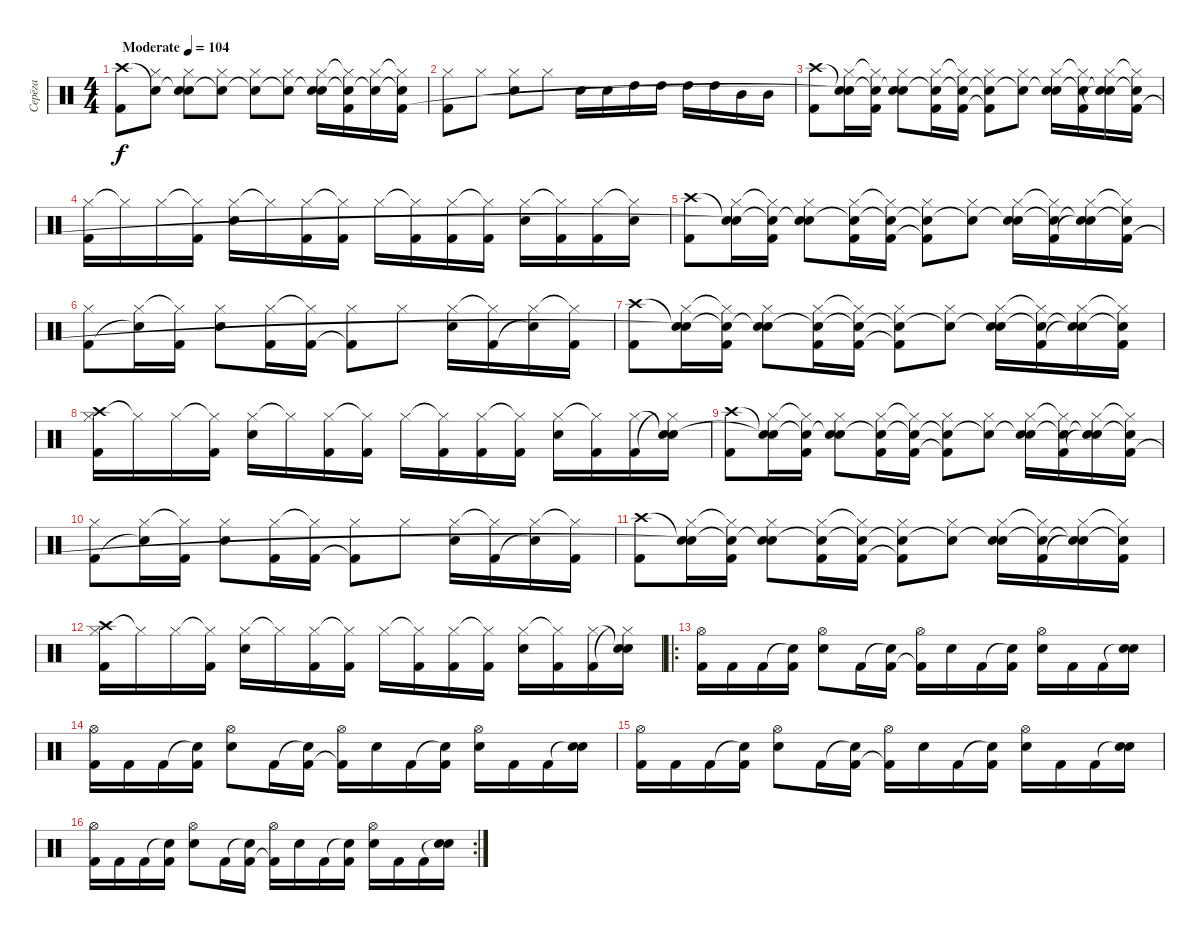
\track ("Серёга" "Серёга") {instrument percussion}
\staff {score}
\articulation defaults
\ts (4 4)
\tempo (104 "Moderate")
\clef neutral
\ks c
("Crash high (hit)" "Kick (hit) 2").8{dy f} ("Snare (hit)"{t} "Hi-Hat (closed)").8 ("Snare (hit)"{t} "Hi-Hat (closed)" "Electric Snare (hit)").8 ("Snare (hit)"{t} "Hi-Hat (closed)").8 ("Snare (hit)"{t} "Hi-Hat (closed)").8 ("Snare (hit)"{t} "Hi-Hat (closed)").8 ("Snare (hit)"{t} "Hi-Hat (closed)" "Electric Snare (hit)").16 ("Snare (hit)"{t} "Hi-Hat (closed)"{t} "Kick (hit) 2").16 ("Snare (hit)"{t} "Hi-Hat (closed)").16 ("Snare (hit)"{t} "Hi-Hat (closed)"{t} "Kick (hit) 2").16 |
("Hi-Hat (closed)" "Kick (hit) 2").8 "Hi-Hat (closed)".8 ("Hi-Hat (closed)" "Electric Snare (hit)").8 "Hi-Hat (closed)".8 "Electric Snare (hit)".16 "Electric Snare (hit)".16 "High Tom (hit)".16 "High Tom (hit)".16 "High Tom (hit)".16 "High Tom (hit)".16 "Mid Tom (hit)".16 "Mid Tom (hit)".16 |
("Crash high (hit)" "Kick (hit) 2").8 ("Snare (hit)"{t} "Hi-Hat (closed)" "Snare (hit)"{t}).16 ("Snare (hit)"{t} "Hi-Hat (closed)"{t} "Kick (hit) 2").16 ("Snare (hit)"{t} "Hi-Hat (closed)" "Electric Snare (hit)").8 ("Snare (hit)"{t} "Hi-Hat (closed)" "Kick (hit) 2").16 ("Snare (hit)"{t} "Hi-Hat (closed)"{t} "Kick (hit) 2").16 ("Snare (hit)"{t} "Hi-Hat (closed)" "Kick (hit) 2"{t}).8 ("Snare (hit)"{t} "Hi-Hat (closed)").8 ("Snare (hit)"{t} "Hi-Hat (closed)" "Electric Snare (hit)").16 ("Snare (hit)"{t} "Hi-Hat (closed)"{t} "Kick (hit) 2").16 ("Snare (hit)"{t} "Hi-Hat (closed)" "Snare (hit)"{t}).16 ("Snare (hit)"{t} "Hi-Hat (closed)"{t} "Kick (hit) 2").16 |
("Hi-Hat (closed)" "Kick (hit) 2").16 "Hi-Hat (closed)"{t}.16 "Hi-Hat (closed)".16 ("Hi-Hat (closed)"{t} "Kick (hit) 2").16 ("Hi-Hat (closed)" "Electric Snare (hit)").16 "Hi-Hat (closed)"{t}.16 ("Hi-Hat (closed)" "Kick (hit) 2").16 ("Hi-Hat (closed)"{t} "Kick (hit) 2").16 "Hi-Hat (closed)".16 ("Hi-Hat (closed)"{t} "Kick (hit) 2").16 ("Hi-Hat (closed)" "Kick (hit) 2").16 ("Hi-Hat (closed)"{t} "Kick (hit) 2").16 ("Hi-Hat (closed)" "Electric Snare (hit)").16 ("Hi-Hat (closed)"{t} "Kick (hit) 2").16 ("Hi-Hat (closed)" "Kick (hit) 2").16 ("Hi-Hat (closed)"{t} "Electric Snare (hit)").16 |
("Crash high (hit)" "Kick (hit) 2").8 ("Snare (hit)"{t} "Hi-Hat (closed)" "Snare (hit)"{t}).16 ("Snare (hit)"{t} "Hi-Hat (closed)"{t} "Kick (hit) 2").16 ("Snare (hit)"{t} "Hi-Hat (closed)" "Electric Snare (hit)").8 ("Snare (hit)"{t} "Hi-Hat (closed)" "Kick (hit) 2").16 ("Snare (hit)"{t} "Hi-Hat (closed)"{t} "Kick (hit) 2").16 ("Snare (hit)"{t} "Hi-Hat (closed)" "Kick (hit) 2"{t}).8 ("Snare (hit)"{t} "Hi-Hat (closed)").8 ("Snare (hit)"{t} "Hi-Hat (closed)" "Electric Snare (hit)").16 ("Snare (hit)"{t} "Hi-Hat (closed)"{t} "Kick (hit) 2").16 ("Snare (hit)"{t} "Hi-Hat (closed)" "Snare (hit)"{t}).16 ("Snare (hit)"{t} "Hi-Hat (closed)"{t} "Kick (hit) 2").16 |
("Hi-Hat (closed)" "Kick (hit) 2").8 ("Hi-Hat (closed)" "Snare (hit)"{t}).16 ("Hi-Hat (closed)"{t} "Kick (hit) 2").16 ("Hi-Hat (closed)" "Electric Snare (hit)").8 ("Hi-Hat (closed)" "Kick (hit) 2").16 ("Hi-Hat (closed)"{t} "Kick (hit) 2").16 ("Hi-Hat (closed)" "Kick (hit) 2"{t}).8 "Hi-Hat (closed)".8 ("Hi-Hat (closed)" "Electric Snare (hit)").16 ("Hi-Hat (closed)"{t} "Kick (hit) 2").16 ("Hi-Hat (closed)" "Snare (hit)"{t}).16 ("Hi-Hat (closed)"{t} "Kick (hit) 2").16 |
("Crash high (hit)" "Kick (hit) 2").8 ("Snare (hit)"{t} "Hi-Hat (closed)" "Snare (hit)"{t}).16 ("Snare (hit)"{t} "Hi-Hat (closed)"{t} "Kick (hit) 2").16 ("Snare (hit)"{t} "Hi-Hat (closed)" "Electric Snare (hit)").8 ("Snare (hit)"{t} "Hi-Hat (closed)" "Kick (hit) 2").16 ("Snare (hit)"{t} "Hi-Hat (closed)"{t} "Kick (hit) 2").16 ("Snare (hit)"{t} "Hi-Hat (closed)" "Kick (hit) 2"{t}).8 ("Snare (hit)"{t} "Hi-Hat (closed)").8 ("Snare (hit)"{t} "Hi-Hat (closed)" "Electric Snare (hit)").16 ("Snare (hit)"{t} "Hi-Hat (closed)"{t} "Kick (hit) 2").16 ("Snare (hit)"{t} "Hi-Hat (closed)" "Snare (hit)"{t}).16 ("Snare (hit)"{t} "Hi-Hat (closed)"{t} "Kick (hit) 2").16 |
("Crash high (hit)" "Hi-Hat (closed)" "Kick (hit) 2").16 "Hi-Hat (closed)"{t}.16 "Hi-Hat (closed)".16 ("Hi-Hat (closed)"{t} "Kick (hit) 2").16 ("Hi-Hat (closed)" "Electric Snare (hit)").16 "Hi-Hat (closed)"{t}.16 ("Hi-Hat (closed)" "Kick (hit) 2").16 ("Hi-Hat (closed)"{t} "Kick (hit) 2").16 "Hi-Hat (closed)".16 ("Hi-Hat (closed)"{t} "Kick (hit) 2").16 ("Hi-Hat (closed)" "Kick (hit) 2").16 ("Hi-Hat (closed)"{t} "Kick (hit) 2").16 ("Hi-Hat (closed)" "Electric Snare (hit)").16 ("Hi-Hat (closed)"{t} "Kick (hit) 2").16 ("Hi-Hat (closed)" "Kick (hit) 2").16 ("Snare (hit)"{t} "Hi-Hat (closed)"{t} "Electric Snare (hit)").16 |
("Crash high (hit)" "Kick (hit) 2").8 ("Snare (hit)"{t} "Hi-Hat (closed)" "Snare (hit)"{t}).16 ("Snare (hit)"{t} "Hi-Hat (closed)"{t} "Kick (hit) 2").16 ("Snare (hit)"{t} "Hi-Hat (closed)" "Electric Snare (hit)").8 ("Snare (hit)"{t} "Hi-Hat (closed)" "Kick (hit) 2").16 ("Snare (hit)"{t} "Hi-Hat (closed)"{t} "Kick (hit) 2").16 ("Snare (hit)"{t} "Hi-Hat (closed)" "Kick (hit) 2"{t}).8 ("Snare (hit)"{t} "Hi-Hat (closed)").8 ("Snare (hit)"{t} "Hi-Hat (closed)" "Electric Snare (hit)").16 ("Snare (hit)"{t} "Hi-Hat (closed)"{t} "Kick (hit) 2").16 ("Snare (hit)"{t} "Hi-Hat (closed)" "Snare (hit)"{t}).16 ("Snare (hit)"{t} "Hi-Hat (closed)"{t} "Kick (hit) 2").16 |
("Hi-Hat (closed)" "Kick (hit) 2").8 ("Hi-Hat (closed)" "Snare (hit)"{t}).16 ("Hi-Hat (closed)"{t} "Kick (hit) 2").16 ("Hi-Hat (closed)" "Electric Snare (hit)").8 ("Hi-Hat (closed)" "Kick (hit) 2").16 ("Hi-Hat (closed)"{t} "Kick (hit) 2").16 ("Hi-Hat (closed)" "Kick (hit) 2"{t}).8 "Hi-Hat (closed)".8 ("Hi-Hat (closed)" "Electric Snare (hit)").16 ("Hi-Hat (closed)"{t} "Kick (hit) 2").16 ("Hi-Hat (closed)" "Snare (hit)"{t}).16 ("Hi-Hat (closed)"{t} "Kick (hit) 2").16 |
("Crash high (hit)" "Kick (hit) 2").8 ("Snare (hit)"{t} "Hi-Hat (closed)" "Snare (hit)"{t}).16 ("Snare (hit)"{t} "Hi-Hat (closed)"{t} "Kick (hit) 2").16 ("Snare (hit)"{t} "Hi-Hat (closed)" "Electric Snare (hit)").8 ("Snare (hit)"{t} "Hi-Hat (closed)" "Kick (hit) 2").16 ("Snare (hit)"{t} "Hi-Hat (closed)"{t} "Kick (hit) 2").16 ("Snare (hit)"{t} "Hi-Hat (closed)" "Kick (hit) 2"{t}).8 ("Snare (hit)"{t} "Hi-Hat (closed)").8 ("Snare (hit)"{t} "Hi-Hat (closed)" "Electric Snare (hit)").16 ("Snare (hit)"{t} "Hi-Hat (closed)"{t} "Kick (hit) 2").16 ("Snare (hit)"{t} "Hi-Hat (closed)" "Snare (hit)"{t}).16 ("Snare (hit)"{t} "Hi-Hat (closed)"{t} "Kick (hit) 2").16 |
("Crash high (hit)" "Hi-Hat (closed)" "Kick (hit) 2").16 "Hi-Hat (closed)"{t}.16 "Hi-Hat (closed)".16 ("Hi-Hat (closed)"{t} "Kick (hit) 2").16 ("Hi-Hat (closed)" "Electric Snare (hit)").16 "Hi-Hat (closed)"{t}.16 ("Hi-Hat (closed)" "Kick (hit) 2").16 ("Hi-Hat (closed)"{t} "Kick (hit) 2").16 "Hi-Hat (closed)".16 ("Hi-Hat (closed)"{t} "Kick (hit) 2").16 ("Hi-Hat (closed)" "Kick (hit) 2").16 ("Hi-Hat (closed)"{t} "Kick (hit) 2").16 ("Hi-Hat (closed)" "Electric Snare (hit)").16 ("Hi-Hat (closed)"{t} "Kick (hit) 2").16 ("Hi-Hat (closed)" "Kick (hit) 2").16 ("Snare (hit)"{t} "Hi-Hat (closed)"{t} "Electric Snare (hit)").16 |
\ro
("Hi-Hat (open)" "Kick (hit) 2").16 "Kick (hit) 2".16 "Kick (hit) 2".16 ("Snare (hit)"{t} "Kick (hit) 2").16 ("Hi-Hat (open)" "Electric Snare (hit)").8 "Kick (hit) 2".16 ("Snare (hit)"{t} "Kick (hit) 2").16 ("Hi-Hat (open)" "Kick (hit) 2"{t}).16 "Electric Snare (hit)".16 "Kick (hit) 2".16 ("Snare (hit)"{t} "Kick (hit) 2").16 ("Hi-Hat (open)" "Electric Snare (hit)").16 "Kick (hit) 2".16 "Kick (hit) 2".16 ("Snare (hit)"{t} "Electric Snare (hit)").16 |
("Hi-Hat (open)" "Kick (hit) 2").16 "Kick (hit) 2".16 "Kick (hit) 2".16 ("Snare (hit)"{t} "Kick (hit) 2").16 ("Hi-Hat (open)" "Electric Snare (hit)").8 "Kick (hit) 2".16 ("Snare (hit)"{t} "Kick (hit) 2").16 ("Hi-Hat (open)" "Kick (hit) 2"{t}).16 "Electric Snare (hit)".16 "Kick (hit) 2".16 ("Snare (hit)"{t} "Kick (hit) 2").16 ("Hi-Hat (open)" "Electric Snare (hit)").16 "Kick (hit) 2".16 "Kick (hit) 2".16 ("Snare (hit)"{t} "Electric Snare (hit)").16 |
("Hi-Hat (open)" "Kick (hit) 2").16 "Kick (hit) 2".16 "Kick (hit) 2".16 ("Snare (hit)"{t} "Kick (hit) 2").16 ("Hi-Hat (open)" "Electric Snare (hit)").8 "Kick (hit) 2".16 ("Snare (hit)"{t} "Kick (hit) 2").16 ("Hi-Hat (open)" "Kick (hit) 2"{t}).16 "Electric Snare (hit)".16 "Kick (hit) 2".16 ("Snare (hit)"{t} "Kick (hit) 2").16 ("Hi-Hat (open)" "Electric Snare (hit)").16 "Kick (hit) 2".16 "Kick (hit) 2".16 ("Snare (hit)"{t} "Electric Snare (hit)").16 |
\rc 2
("Hi-Hat (open)" "Kick (hit) 2").16 "Kick (hit) 2".16 "Kick (hit) 2".16 ("Snare (hit)"{t} "Kick (hit) 2").16 ("Hi-Hat (open)" "Electric Snare (hit)").8 "Kick (hit) 2".16 ("Snare (hit)"{t} "Kick (hit) 2").16 ("Hi-Hat (open)" "Kick (hit) 2"{t}).16 "Electric Snare (hit)".16 "Kick (hit) 2".16 ("Snare (hit)"{t} "Kick (hit) 2").16 ("Hi-Hat (open)" "Electric Snare (hit)").16 "Kick (hit) 2".16 "Kick (hit) 2".16 ("Snare (hit)"{t} "Electric Snare (hit)").16
